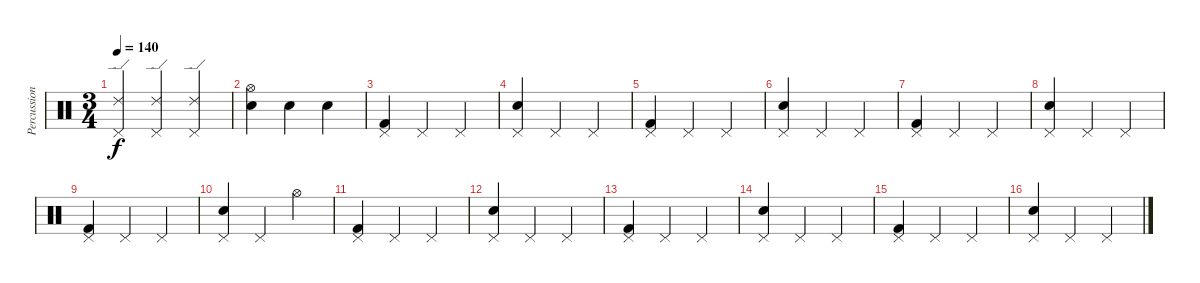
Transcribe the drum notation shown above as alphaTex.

\track ("Percussion" "Percussion") {instrument percussion}
\staff {score}
\articulation defaults
\ts (3 4)
\tempo 140
\clef neutral
\ks c
("Pedal Hi-Hat (hit)" "Ride (edge) 2").4{dy f} ("Pedal Hi-Hat (hit)" "Ride (edge) 2").4 ("Pedal Hi-Hat (hit)" "Ride (edge) 2").4 |
("Hi-Hat (open)" "Snare (hit) 2").4 "Snare (hit) 2".4 "Snare (hit) 2".4 |
("Pedal Hi-Hat (hit)" "Kick (hit) 2").4 "Pedal Hi-Hat (hit)".4 "Pedal Hi-Hat (hit)".4 |
("Pedal Hi-Hat (hit)" "Snare (hit) 2").4 "Pedal Hi-Hat (hit)".4 "Pedal Hi-Hat (hit)".4 |
("Pedal Hi-Hat (hit)" "Kick (hit) 2").4 "Pedal Hi-Hat (hit)".4 "Pedal Hi-Hat (hit)".4 |
("Pedal Hi-Hat (hit)" "Snare (hit) 2").4 "Pedal Hi-Hat (hit)".4 "Pedal Hi-Hat (hit)".4 |
("Pedal Hi-Hat (hit)" "Kick (hit) 2").4 "Pedal Hi-Hat (hit)".4 "Pedal Hi-Hat (hit)".4 |
("Pedal Hi-Hat (hit)" "Snare (hit) 2").4 "Pedal Hi-Hat (hit)".4 "Pedal Hi-Hat (hit)".4 |
("Pedal Hi-Hat (hit)" "Kick (hit) 2").4 "Pedal Hi-Hat (hit)".4 "Pedal Hi-Hat (hit)".4 |
("Pedal Hi-Hat (hit)" "Snare (hit) 2").4 "Pedal Hi-Hat (hit)".4 "Hi-Hat (open)".4 |
("Pedal Hi-Hat (hit)" "Kick (hit) 2").4 "Pedal Hi-Hat (hit)".4 "Pedal Hi-Hat (hit)".4 |
("Pedal Hi-Hat (hit)" "Snare (hit) 2").4 "Pedal Hi-Hat (hit)".4 "Pedal Hi-Hat (hit)".4 |
("Pedal Hi-Hat (hit)" "Kick (hit) 2").4 "Pedal Hi-Hat (hit)".4 "Pedal Hi-Hat (hit)".4 |
("Pedal Hi-Hat (hit)" "Snare (hit) 2").4 "Pedal Hi-Hat (hit)".4 "Pedal Hi-Hat (hit)".4 |
("Pedal Hi-Hat (hit)" "Kick (hit) 2").4 "Pedal Hi-Hat (hit)".4 "Pedal Hi-Hat (hit)".4 |
("Pedal Hi-Hat (hit)" "Snare (hit) 2").4 "Pedal Hi-Hat (hit)".4 "Pedal Hi-Hat (hit)".4
